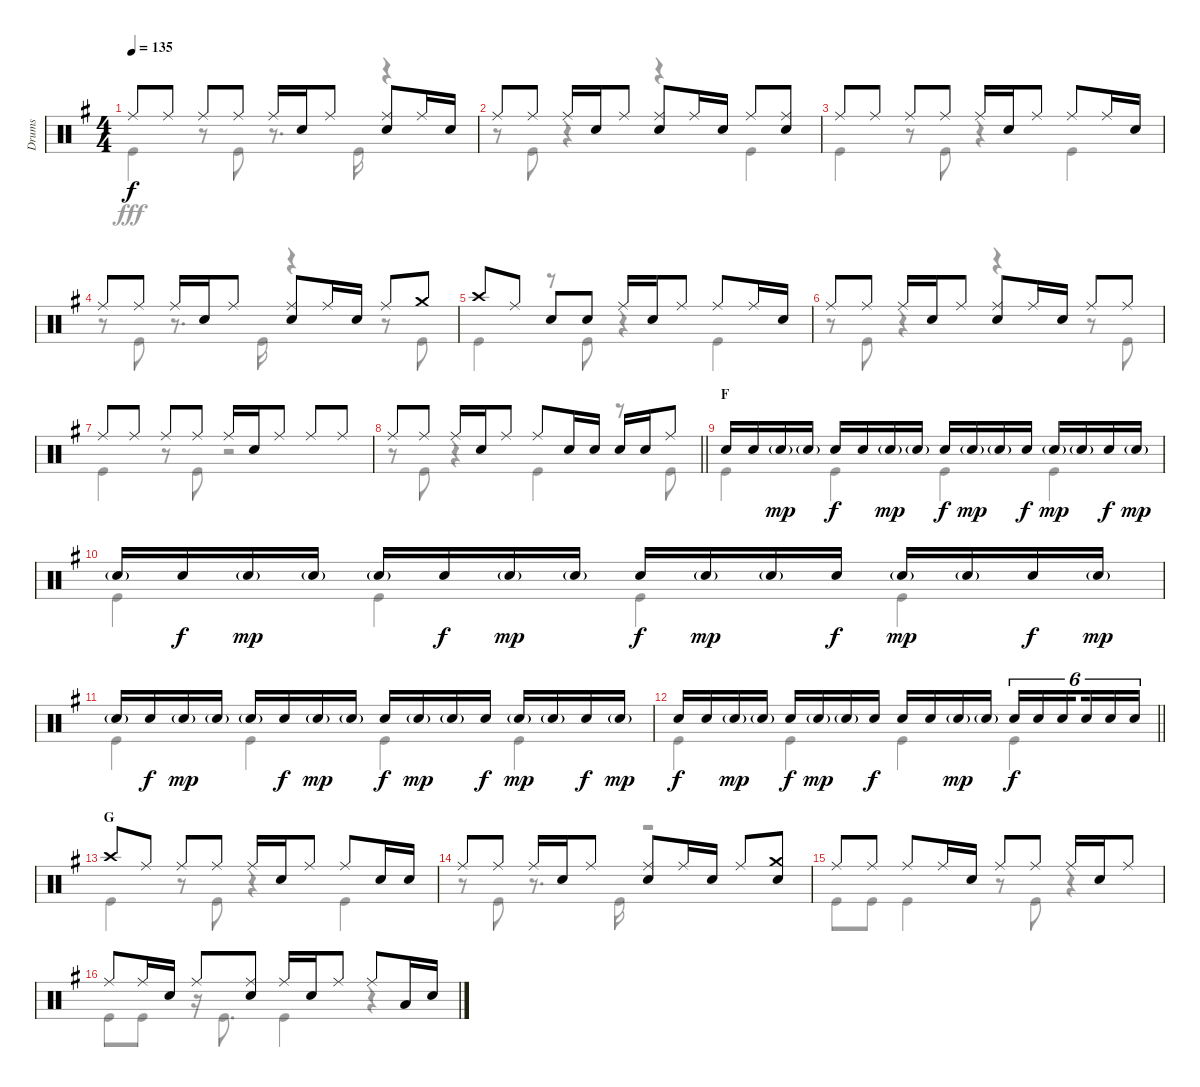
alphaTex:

\track ("Drums" "Drums") {instrument percussion}
\staff {score}
\articulation defaults
\voice
\ts (4 4)
\tempo 135
\clef neutral
\ks g "Ride (middle)".8{dy f} "Ride (middle)".8 "Ride (middle)".8 "Ride (middle)".8 "Ride (middle)".16 "Snare (hit) 2".16 "Ride (middle)".8
("Ride (middle)" "Snare (hit) 2").8 "Ride (middle)".16 "Snare (hit) 2".16 |
"Ride (middle)".8 "Ride (middle)".8 "Ride (middle)".16 "Snare (hit) 2".16 "Ride (middle)".8 ("Ride (middle)" "Snare (hit) 2").8 "Ride (middle)".16 "Snare (hit) 2".16 "Ride (middle)".8 ("Ride (middle)" "Snare (hit) 2").8 |
"Ride (middle)".8 "Ride (middle)".8 "Ride (middle)".8 "Ride (middle)".8 "Ride (middle)".16 "Snare (hit) 2".16 "Ride (middle)".8 "Ride (middle)".8 "Ride (middle)".16 "Snare (hit) 2".16 |
"Ride (middle)".8 "Ride (middle)".8 "Ride (middle)".16 "Snare (hit) 2".16 "Ride (middle)".8 ("Ride (middle)" "Snare (hit) 2").8 "Ride (middle)".16 "Snare (hit) 2".16 "Ride (middle)".8 "Crash medium (hit)".8 |
"Crash high (hit)".8 "Ride (middle)".8 "Snare (hit)".8 "Snare (hit)".8 "Ride (middle)".16 "Snare (hit) 2".16 "Ride (middle)".8 "Ride (middle)".8 "Ride (middle)".16 "Snare (hit) 2".16 |
"Ride (middle)".8 "Ride (middle)".8 "Ride (middle)".16 "Snare (hit) 2".16 "Ride (middle)".8 ("Ride (middle)" "Snare (hit) 2").8 "Ride (middle)".16 "Snare (hit) 2".16 "Ride (middle)".8 "Ride (middle)".8 |
"Ride (middle)".8 "Ride (middle)".8 "Ride (middle)".8 "Ride (middle)".8 "Ride (middle)".16 "Snare (hit) 2".16 "Ride (middle)".8 "Ride (middle)".8 "Ride (middle)".8 |
\barLineRight lightlight "Ride (middle)".8 "Ride (middle)".8 "Ride (middle)".16 "Snare (hit) 2".16 "Ride (middle)".8 "Ride (middle)".8 "Snare (hit) 2".16 "Snare (hit) 2".16 "Snare (hit) 2".16 "Snare (hit) 2".16 "Ride (middle)".8
|
\section ("" "F")
"Snare (hit) 2".16 "Snare (hit) 2".16 "Snare (hit) 2"{g}.16{dy mp} "Snare (hit) 2"{g}.16 "Snare (hit) 2".16{dy f} "Snare (hit) 2".16 "Snare (hit) 2"{g}.16{dy mp} "Snare (hit) 2"{g}.16 "Snare (hit) 2".16{dy f} "Snare (hit) 2"{g}.16{dy mp} "Snare (hit) 2"{g}.16 "Snare (hit) 2".16{dy f} "Snare (hit) 2"{g}.16{dy mp} "Snare (hit) 2"{g}.16 "Snare (hit) 2".16{dy f} "Snare (hit) 2"{g}.16{dy mp} |
"Snare (hit) 2"{g}.16 "Snare (hit) 2".16{dy f} "Snare (hit) 2"{g}.16{dy mp} "Snare (hit) 2"{g}.16 "Snare (hit) 2"{g}.16 "Snare (hit) 2".16{dy f} "Snare (hit) 2"{g}.16{dy mp} "Snare (hit) 2"{g}.16 "Snare (hit) 2".16{dy f} "Snare (hit) 2"{g}.16{dy mp} "Snare (hit) 2"{g}.16 "Snare (hit) 2".16{dy f} "Snare (hit) 2"{g}.16{dy mp} "Snare (hit) 2"{g}.16 "Snare (hit) 2".16{dy f} "Snare (hit) 2"{g}.16{dy mp} |
"Snare (hit) 2"{g}.16 "Snare (hit) 2".16{dy f} "Snare (hit) 2"{g}.16{dy mp} "Snare (hit) 2"{g}.16 "Snare (hit) 2"{g}.16 "Snare (hit) 2".16{dy f} "Snare (hit) 2"{g}.16{dy mp} "Snare (hit) 2"{g}.16 "Snare (hit) 2".16{dy f} "Snare (hit) 2"{g}.16{dy mp} "Snare (hit) 2"{g}.16 "Snare (hit) 2".16{dy f} "Snare (hit) 2"{g}.16{dy mp} "Snare (hit) 2"{g}.16 "Snare (hit) 2".16{dy f} "Snare (hit) 2"{g}.16{dy mp} |
\barLineRight lightlight "Snare (hit) 2".16{dy f} "Snare (hit) 2".16 "Snare (hit) 2"{g}.16{dy mp} "Snare (hit) 2"{g}.16 "Snare (hit) 2".16{dy f} "Snare (hit) 2"{g}.16{dy mp} "Snare (hit) 2"{g}.16 "Snare (hit) 2".16{dy f} "Snare (hit) 2".16 "Snare (hit) 2".16 "Snare (hit) 2"{g}.16{dy mp} "Snare (hit) 2"{g}.16 "Snare (hit) 2".16{tu (6 4) dy f} "Snare (hit) 2".16{tu (6 4)} "Snare (hit) 2".16{tu (6 4) beam splitsecondary} "Snare (hit) 2".16{tu (6 4)} "Snare (hit) 2".16{tu (6 4)} "Snare (hit) 2".16{tu (6 4)}
|
\section ("" "G")
"Crash high (hit)".8 "Ride (middle)".8 "Ride (middle)".8 "Ride (middle)".8 "Ride (middle)".16 "Snare (hit) 2".16 "Ride (middle)".8 "Ride (middle)".8 "Snare (hit) 2".16 "Snare (hit) 2".16 |
"Ride (middle)".8 "Ride (middle)".8 "Ride (middle)".16 "Snare (hit) 2".16 "Ride (middle)".8 ("Ride (middle)" "Snare (hit) 2").8 "Ride (middle)".16 "Snare (hit) 2".16 "Ride (middle)".8 ("Crash medium (hit)" "Snare (hit) 2").8 |
"Ride (middle)".8 "Ride (middle)".8 "Ride (middle)".8 "Ride (middle)".16 "Snare (hit) 2".16 "Ride (middle)".8 "Ride (middle)".8 "Ride (middle)".16 "Snare (hit) 2".16 "Ride (middle)".8 |
"Ride (middle)".8 "Ride (middle)".16 "Snare (hit) 2".16 "Ride (middle)".8 ("Ride (middle)" "Snare (hit) 2").8 "Ride (middle)".16 "Snare (hit) 2".16 "Ride (middle)".8 "Ride (middle)".8 "Low Tom (hit)".16 "Snare (hit) 2".16
\voice
\clef neutral
\ottava regular
\simile none
\ks g "Kick (hit)".4{dy fff}
r.8 "Kick (hit)".8 r.8{d} "Kick (hit)".16 r.4 |
r.8 "Kick (hit)".8 r.4 r.4 "Kick (hit)".4 |
"Kick (hit)".4 r.8 "Kick (hit)".8 r.4 "Kick (hit)".4 |
r.8 "Kick (hit)".8 r.8{d} "Kick (hit)".16 r.4 r.8 "Kick (hit)".8 |
"Kick (hit)".4 r.8 "Kick (hit)".8 r.4 "Kick (hit)".4 |
r.8 "Kick (hit)".8 r.4 r.4 r.8 "Kick (hit)".8 |
"Kick (hit)".4 r.8 "Kick (hit)".8 r.2 |
\barLineRight lightlight
r.8 "Kick (hit)".8 r.4 "Kick (hit)".4 r.8 "Kick (hit)".8 |
"Kick (hit)".4 "Kick (hit)".4 "Kick (hit)".4 "Kick (hit)".4 |
"Kick (hit)".4 "Kick (hit)".4 "Kick (hit)".4 "Kick (hit)".4 |
"Kick (hit)".4 "Kick (hit)".4 "Kick (hit)".4 "Kick (hit)".4 |
\barLineRight lightlight "Kick (hit)".4 "Kick (hit)".4 "Kick (hit)".4 "Kick (hit)".4
|
"Kick (hit)".4 r.8 "Kick (hit)".8 r.4 "Kick (hit)".4 |
r.8 "Kick (hit)".8 r.8{d} "Kick (hit)".16 r.2 |
"Kick (hit)".8 "Kick (hit)".8 "Kick (hit)".4 r.8 "Kick (hit)".8 r.4 |
"Kick (hit)".8 "Kick (hit)".8 r.16 "Kick (hit)".8{d} "Kick (hit)".4 r.4
